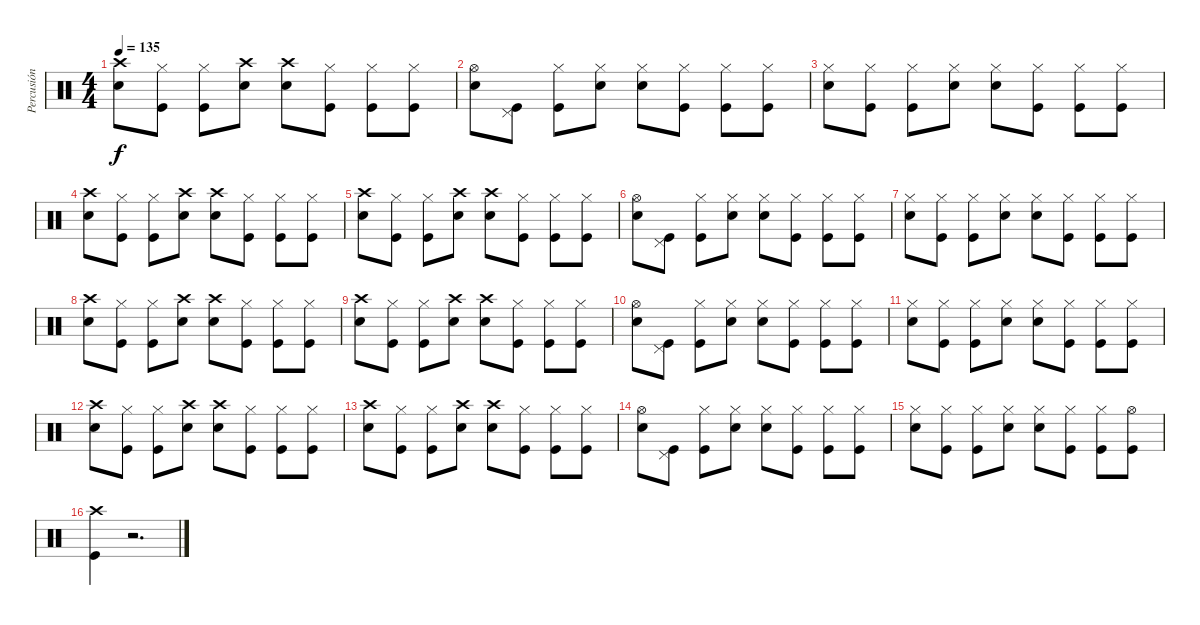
\track ("Percusión" "Percusión") {instrument percussion}
\staff {score}
\articulation defaults
\ts (4 4)
\tempo 135
\clef neutral
\ks c
("Crash high (hit)" "Snare (hit) 2").8{dy f} ("Hi-Hat (closed)" "Kick (hit)").8 ("Hi-Hat (closed)" "Kick (hit)").8 ("Crash high (hit)" "Snare (hit) 2").8 ("Crash high (hit)" "Snare (hit) 2").8 ("Hi-Hat (closed)" "Kick (hit)").8 ("Hi-Hat (closed)" "Kick (hit)").8 ("Hi-Hat (closed)" "Kick (hit)").8 |
("Hi-Hat (open)" "Snare (hit) 2").8 ("Pedal Hi-Hat (hit)" "Kick (hit)").8 ("Hi-Hat (closed)" "Kick (hit)").8 ("Hi-Hat (closed)" "Snare (hit) 2").8 ("Hi-Hat (closed)" "Snare (hit) 2").8 ("Hi-Hat (closed)" "Kick (hit)").8 ("Hi-Hat (closed)" "Kick (hit)").8 ("Hi-Hat (closed)" "Kick (hit)").8 |
("Hi-Hat (closed)" "Snare (hit) 2").8 ("Hi-Hat (closed)" "Kick (hit)").8 ("Hi-Hat (closed)" "Kick (hit)").8 ("Hi-Hat (closed)" "Snare (hit) 2").8 ("Hi-Hat (closed)" "Snare (hit) 2").8 ("Hi-Hat (closed)" "Kick (hit)").8 ("Hi-Hat (closed)" "Kick (hit)").8 ("Hi-Hat (closed)" "Kick (hit)").8 |
("Crash high (hit)" "Snare (hit) 2").8 ("Hi-Hat (closed)" "Kick (hit)").8 ("Hi-Hat (closed)" "Kick (hit)").8 ("Crash high (hit)" "Snare (hit) 2").8 ("Crash high (hit)" "Snare (hit) 2").8 ("Hi-Hat (closed)" "Kick (hit)").8 ("Hi-Hat (closed)" "Kick (hit)").8 ("Hi-Hat (closed)" "Kick (hit)").8 |
("Crash high (hit)" "Snare (hit) 2").8 ("Hi-Hat (closed)" "Kick (hit)").8 ("Hi-Hat (closed)" "Kick (hit)").8 ("Crash high (hit)" "Snare (hit) 2").8 ("Crash high (hit)" "Snare (hit) 2").8 ("Hi-Hat (closed)" "Kick (hit)").8 ("Hi-Hat (closed)" "Kick (hit)").8 ("Hi-Hat (closed)" "Kick (hit)").8 |
("Hi-Hat (open)" "Snare (hit) 2").8 ("Pedal Hi-Hat (hit)" "Kick (hit)").8 ("Hi-Hat (closed)" "Kick (hit)").8 ("Hi-Hat (closed)" "Snare (hit) 2").8 ("Hi-Hat (closed)" "Snare (hit) 2").8 ("Hi-Hat (closed)" "Kick (hit)").8 ("Hi-Hat (closed)" "Kick (hit)").8 ("Hi-Hat (closed)" "Kick (hit)").8 |
("Hi-Hat (closed)" "Snare (hit) 2").8 ("Hi-Hat (closed)" "Kick (hit)").8 ("Hi-Hat (closed)" "Kick (hit)").8 ("Hi-Hat (closed)" "Snare (hit) 2").8 ("Hi-Hat (closed)" "Snare (hit) 2").8 ("Hi-Hat (closed)" "Kick (hit)").8 ("Hi-Hat (closed)" "Kick (hit)").8 ("Hi-Hat (closed)" "Kick (hit)").8 |
("Crash high (hit)" "Snare (hit) 2").8 ("Hi-Hat (closed)" "Kick (hit)").8 ("Hi-Hat (closed)" "Kick (hit)").8 ("Crash high (hit)" "Snare (hit) 2").8 ("Crash high (hit)" "Snare (hit) 2").8 ("Hi-Hat (closed)" "Kick (hit)").8 ("Hi-Hat (closed)" "Kick (hit)").8 ("Hi-Hat (closed)" "Kick (hit)").8 |
("Crash high (hit)" "Snare (hit) 2").8 ("Hi-Hat (closed)" "Kick (hit)").8 ("Hi-Hat (closed)" "Kick (hit)").8 ("Crash high (hit)" "Snare (hit) 2").8 ("Crash high (hit)" "Snare (hit) 2").8 ("Hi-Hat (closed)" "Kick (hit)").8 ("Hi-Hat (closed)" "Kick (hit)").8 ("Hi-Hat (closed)" "Kick (hit)").8 |
("Hi-Hat (open)" "Snare (hit) 2").8 ("Pedal Hi-Hat (hit)" "Kick (hit)").8 ("Hi-Hat (closed)" "Kick (hit)").8 ("Hi-Hat (closed)" "Snare (hit) 2").8 ("Hi-Hat (closed)" "Snare (hit) 2").8 ("Hi-Hat (closed)" "Kick (hit)").8 ("Hi-Hat (closed)" "Kick (hit)").8 ("Hi-Hat (closed)" "Kick (hit)").8 |
("Hi-Hat (closed)" "Snare (hit) 2").8 ("Hi-Hat (closed)" "Kick (hit)").8 ("Hi-Hat (closed)" "Kick (hit)").8 ("Hi-Hat (closed)" "Snare (hit) 2").8 ("Hi-Hat (closed)" "Snare (hit) 2").8 ("Hi-Hat (closed)" "Kick (hit)").8 ("Hi-Hat (closed)" "Kick (hit)").8 ("Hi-Hat (closed)" "Kick (hit)").8 |
("Crash high (hit)" "Snare (hit) 2").8 ("Hi-Hat (closed)" "Kick (hit)").8 ("Hi-Hat (closed)" "Kick (hit)").8 ("Crash high (hit)" "Snare (hit) 2").8 ("Crash high (hit)" "Snare (hit) 2").8 ("Hi-Hat (closed)" "Kick (hit)").8 ("Hi-Hat (closed)" "Kick (hit)").8 ("Hi-Hat (closed)" "Kick (hit)").8 |
("Crash high (hit)" "Snare (hit) 2").8 ("Hi-Hat (closed)" "Kick (hit)").8 ("Hi-Hat (closed)" "Kick (hit)").8 ("Crash high (hit)" "Snare (hit) 2").8 ("Crash high (hit)" "Snare (hit) 2").8 ("Hi-Hat (closed)" "Kick (hit)").8 ("Hi-Hat (closed)" "Kick (hit)").8 ("Hi-Hat (closed)" "Kick (hit)").8 |
("Hi-Hat (open)" "Snare (hit) 2").8 ("Pedal Hi-Hat (hit)" "Kick (hit)").8 ("Hi-Hat (closed)" "Kick (hit)").8 ("Hi-Hat (closed)" "Snare (hit) 2").8 ("Hi-Hat (closed)" "Snare (hit) 2").8 ("Hi-Hat (closed)" "Kick (hit)").8 ("Hi-Hat (closed)" "Kick (hit)").8 ("Hi-Hat (closed)" "Kick (hit)").8 |
("Hi-Hat (closed)" "Snare (hit) 2").8 ("Hi-Hat (closed)" "Kick (hit)").8 ("Hi-Hat (closed)" "Kick (hit)").8 ("Hi-Hat (closed)" "Snare (hit) 2").8 ("Hi-Hat (closed)" "Snare (hit) 2").8 ("Hi-Hat (closed)" "Kick (hit)").8 ("Hi-Hat (closed)" "Kick (hit)").8 ("Hi-Hat (open)" "Kick (hit)").8 |
("Crash high (hit)" "Kick (hit)").4 r.2{d}
